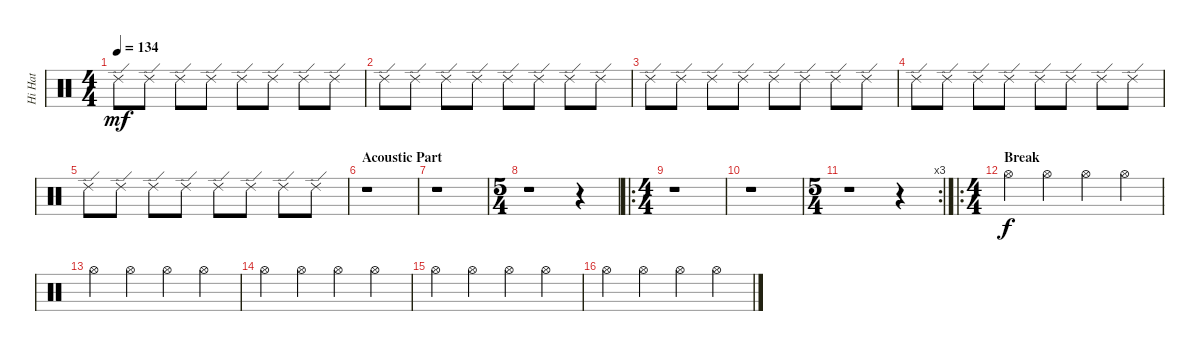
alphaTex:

\track ("Hi Hat" "Hi Hat") {instrument percussion}
\staff {score}
\articulation defaults
\ts (4 4)
\tempo 134
\clef neutral
\ks c "Ride (edge) 2".8{dy mf} "Ride (edge) 2".8 "Ride (edge) 2".8 "Ride (edge) 2".8 "Ride (edge) 2".8 "Ride (edge) 2".8 "Ride (edge) 2".8 "Ride (edge) 2".8
|
"Ride (edge) 2".8 "Ride (edge) 2".8 "Ride (edge) 2".8 "Ride (edge) 2".8 "Ride (edge) 2".8 "Ride (edge) 2".8 "Ride (edge) 2".8 "Ride (edge) 2".8 |
"Ride (edge) 2".8 "Ride (edge) 2".8 "Ride (edge) 2".8 "Ride (edge) 2".8 "Ride (edge) 2".8 "Ride (edge) 2".8 "Ride (edge) 2".8 "Ride (edge) 2".8 |
"Ride (edge) 2".8 "Ride (edge) 2".8 "Ride (edge) 2".8 "Ride (edge) 2".8 "Ride (edge) 2".8 "Ride (edge) 2".8 "Ride (edge) 2".8 "Ride (edge) 2".8 |
"Ride (edge) 2".8 "Ride (edge) 2".8 "Ride (edge) 2".8 "Ride (edge) 2".8 "Ride (edge) 2".8 "Ride (edge) 2".8 "Ride (edge) 2".8 "Ride (edge) 2".8 |
\section ("" "Acoustic Part")
r.1 |
r.1 |
\ts (5 4)
r.1 r.4 |
\ro
\ts (4 4)
r.1 |
r.1 |
\rc 3
\ts (5 4)
r.1 r.4 |
\ro
\ts (4 4)
\section ("" "Break")
"Hi-Hat (open)".4{dy f} "Hi-Hat (open)".4 "Hi-Hat (open)".4 "Hi-Hat (open)".4 |
"Hi-Hat (open)".4 "Hi-Hat (open)".4 "Hi-Hat (open)".4 "Hi-Hat (open)".4 |
"Hi-Hat (open)".4 "Hi-Hat (open)".4 "Hi-Hat (open)".4 "Hi-Hat (open)".4 |
"Hi-Hat (open)".4 "Hi-Hat (open)".4 "Hi-Hat (open)".4 "Hi-Hat (open)".4 |
"Hi-Hat (open)".4 "Hi-Hat (open)".4 "Hi-Hat (open)".4 "Hi-Hat (open)".4
